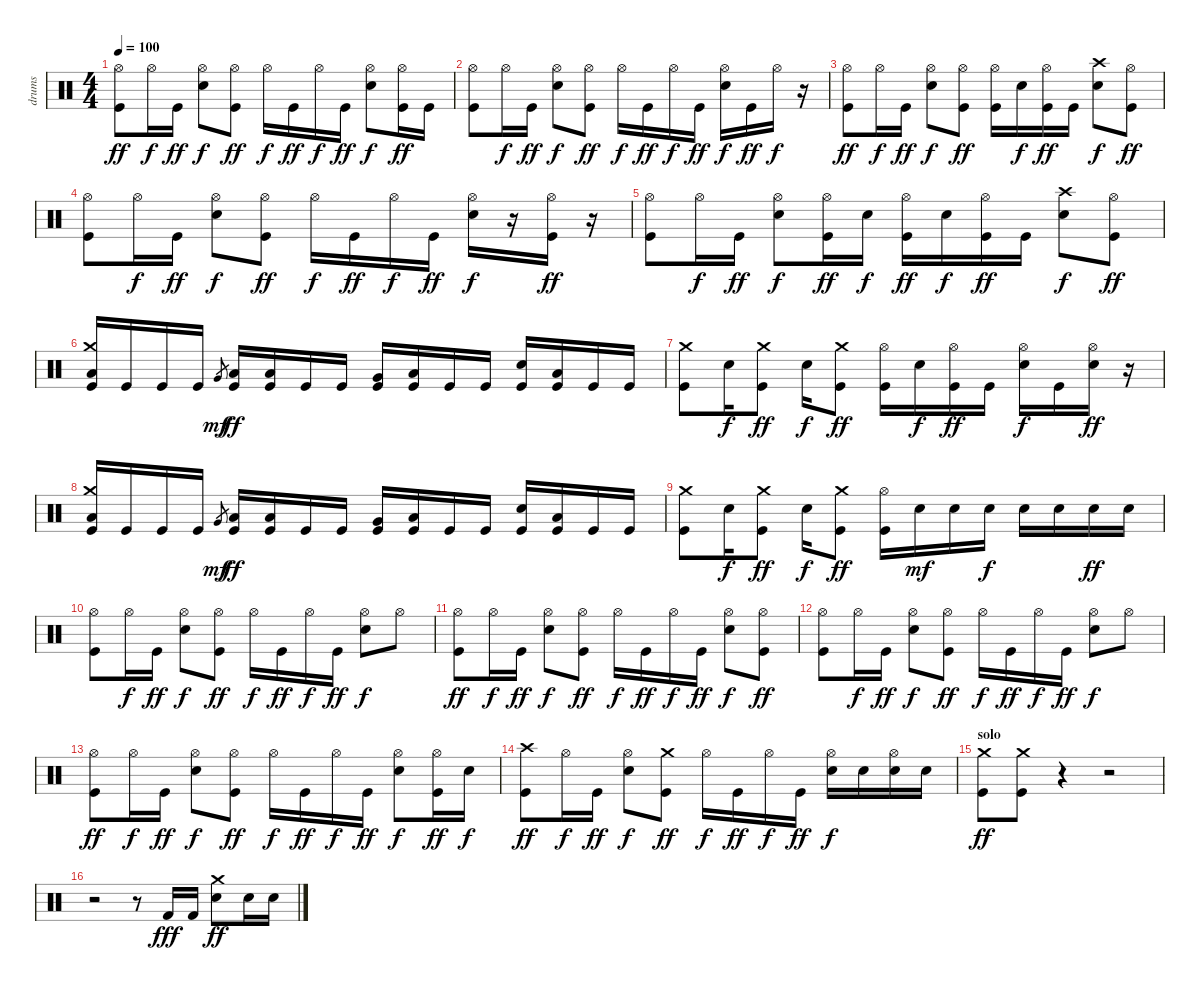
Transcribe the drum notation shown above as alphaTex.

\track ("drums" "drums") {instrument percussion}
\staff {score}
\articulation defaults
\ts (4 4)
\tempo 100
\clef neutral
\ks c
("Hi-Hat (open)" "Kick (hit)").8{dy ff} "Hi-Hat (open)".16{dy f} "Kick (hit)".16{dy ff} ("Hi-Hat (open)" "Snare (hit) 2").8{dy f} ("Hi-Hat (open)" "Kick (hit)").8{dy ff} "Hi-Hat (open)".16{dy f} "Kick (hit)".16{dy ff} "Hi-Hat (open)".16{dy f} "Kick (hit)".16{dy ff} ("Hi-Hat (open)" "Snare (hit) 2").8{dy f} ("Hi-Hat (open)" "Kick (hit)").16{dy ff} "Kick (hit)".16 |
("Hi-Hat (open)" "Kick (hit)").8 "Hi-Hat (open)".16{dy f} "Kick (hit)".16{dy ff} ("Hi-Hat (open)" "Snare (hit) 2").8{dy f} ("Hi-Hat (open)" "Kick (hit)").8{dy ff} "Hi-Hat (open)".16{dy f} "Kick (hit)".16{dy ff} "Hi-Hat (open)".16{dy f} "Kick (hit)".16{dy ff} ("Hi-Hat (open)" "Snare (hit) 2").16{dy f} "Kick (hit)".16{dy ff} "Hi-Hat (open)".16{dy f} r.16 |
("Hi-Hat (open)" "Kick (hit)").8{dy ff} "Hi-Hat (open)".16{dy f} "Kick (hit)".16{dy ff} ("Hi-Hat (open)" "Snare (hit) 2").8{dy f} ("Hi-Hat (open)" "Kick (hit)").8{dy ff} ("Hi-Hat (open)" "Kick (hit)").16 "Snare (hit) 2".16{dy f} ("Hi-Hat (open)" "Kick (hit)").16{dy ff} "Kick (hit)".16 ("Crash high (hit)" "Snare (hit) 2").8{dy f} ("Hi-Hat (open)" "Kick (hit)").8{dy ff} |
("Hi-Hat (open)" "Kick (hit)").8 "Hi-Hat (open)".16{dy f} "Kick (hit)".16{dy ff} ("Hi-Hat (open)" "Snare (hit) 2").8{dy f} ("Hi-Hat (open)" "Kick (hit)").8{dy ff} "Hi-Hat (open)".16{dy f} "Kick (hit)".16{dy ff} "Hi-Hat (open)".16{dy f} "Kick (hit)".16{dy ff} ("Hi-Hat (open)" "Snare (hit) 2").16{dy f} r.16 ("Hi-Hat (open)" "Kick (hit)").16{dy ff} r.16 |
("Hi-Hat (open)" "Kick (hit)").8 "Hi-Hat (open)".16{dy f} "Kick (hit)".16{dy ff} ("Hi-Hat (open)" "Snare (hit) 2").8{dy f} ("Hi-Hat (open)" "Kick (hit)").16{dy ff} "Snare (hit) 2".16{dy f} ("Hi-Hat (open)" "Kick (hit)").16{dy ff} "Snare (hit) 2".16{dy f} ("Hi-Hat (open)" "Kick (hit)").16{dy ff} "Kick (hit)".16 ("Crash high (hit)" "Snare (hit) 2").8{dy f} ("Hi-Hat (open)" "Kick (hit)").8{dy ff} |
("Crash medium (hit)" "Low Floor Tom (hit)" "Kick (hit)").16 "Kick (hit)".16 "Kick (hit)".16 "Kick (hit)".16 "Very Low Tom (hit)".8{gr dy mf} ("Low Floor Tom (hit)" "Kick (hit)").16{dy ff} ("Low Floor Tom (hit)" "Kick (hit)").16 "Kick (hit)".16 "Kick (hit)".16 ("Very Low Tom (hit)" "Kick (hit)").16 ("Low Floor Tom (hit)" "Kick (hit)").16 "Kick (hit)".16 "Kick (hit)".16 ("Snare (hit) 2" "Kick (hit)").16 ("Low Floor Tom (hit)" "Kick (hit)").16 "Kick (hit)".16 "Kick (hit)".16 |
("Crash medium (hit)" "Kick (hit)").8 "Snare (hit) 2".16{dy f} ("Crash medium (hit)" "Kick (hit)").8{dy ff} "Snare (hit) 2".16{dy f} ("Crash medium (hit)" "Kick (hit)").8{dy ff} ("Hi-Hat (open)" "Kick (hit)").16 "Snare (hit) 2".16{dy f} ("Hi-Hat (open)" "Kick (hit)").16{dy ff} "Kick (hit)".16 ("Hi-Hat (open)" "Snare (hit) 2").16{dy f} "Kick (hit)".16 ("Hi-Hat (open)" "Snare (hit) 2").16{dy ff} r.16 |
("Crash medium (hit)" "Low Floor Tom (hit)" "Kick (hit)").16 "Kick (hit)".16 "Kick (hit)".16 "Kick (hit)".16 "Very Low Tom (hit)".8{gr dy mf} ("Low Floor Tom (hit)" "Kick (hit)").16{dy ff} ("Low Floor Tom (hit)" "Kick (hit)").16 "Kick (hit)".16 "Kick (hit)".16 ("Very Low Tom (hit)" "Kick (hit)").16 ("Low Floor Tom (hit)" "Kick (hit)").16 "Kick (hit)".16 "Kick (hit)".16 ("Snare (hit) 2" "Kick (hit)").16 ("Low Floor Tom (hit)" "Kick (hit)").16 "Kick (hit)".16 "Kick (hit)".16 |
("Crash medium (hit)" "Kick (hit)").8 "Snare (hit) 2".16{dy f} ("Crash medium (hit)" "Kick (hit)").8{dy ff} "Snare (hit) 2".16{dy f} ("Crash medium (hit)" "Kick (hit)").8{dy ff} ("Hi-Hat (open)" "Kick (hit)").16 "Snare (hit) 2".16{dy mf} "Snare (hit) 2".16 "Snare (hit) 2".16{dy f} "Snare (hit) 2".16 "Snare (hit) 2".16 "Snare (hit) 2".16{dy ff} "Snare (hit) 2".16 |
("Hi-Hat (open)" "Kick (hit)").8 "Hi-Hat (open)".16{dy f} "Kick (hit)".16{dy ff} ("Hi-Hat (open)" "Snare (hit) 2").8{dy f} ("Hi-Hat (open)" "Kick (hit)").8{dy ff} "Hi-Hat (open)".16{dy f} "Kick (hit)".16{dy ff} "Hi-Hat (open)".16{dy f} "Kick (hit)".16{dy ff} ("Hi-Hat (open)" "Snare (hit) 2").8{dy f} "Hi-Hat (open)".8 |
("Hi-Hat (open)" "Kick (hit)").8{dy ff} "Hi-Hat (open)".16{dy f} "Kick (hit)".16{dy ff} ("Hi-Hat (open)" "Snare (hit) 2").8{dy f} ("Hi-Hat (open)" "Kick (hit)").8{dy ff} "Hi-Hat (open)".16{dy f} "Kick (hit)".16{dy ff} "Hi-Hat (open)".16{dy f} "Kick (hit)".16{dy ff} ("Hi-Hat (open)" "Snare (hit) 2").8{dy f} ("Hi-Hat (open)" "Kick (hit)").8{dy ff} |
("Hi-Hat (open)" "Kick (hit)").8 "Hi-Hat (open)".16{dy f} "Kick (hit)".16{dy ff} ("Hi-Hat (open)" "Snare (hit) 2").8{dy f} ("Hi-Hat (open)" "Kick (hit)").8{dy ff} "Hi-Hat (open)".16{dy f} "Kick (hit)".16{dy ff} "Hi-Hat (open)".16{dy f} "Kick (hit)".16{dy ff} ("Hi-Hat (open)" "Snare (hit) 2").8{dy f} "Hi-Hat (open)".8 |
("Hi-Hat (open)" "Kick (hit)").8{dy ff} "Hi-Hat (open)".16{dy f} "Kick (hit)".16{dy ff} ("Hi-Hat (open)" "Snare (hit) 2").8{dy f} ("Hi-Hat (open)" "Kick (hit)").8{dy ff} "Hi-Hat (open)".16{dy f} "Kick (hit)".16{dy ff} "Hi-Hat (open)".16{dy f} "Kick (hit)".16{dy ff} ("Hi-Hat (open)" "Snare (hit) 2").8{dy f} ("Hi-Hat (open)" "Kick (hit)").16{dy ff} "Snare (hit) 2".16{dy f} |
("Crash high (hit)" "Kick (hit)").8{dy ff} "Hi-Hat (open)".16{dy f} "Kick (hit)".16{dy ff} ("Hi-Hat (open)" "Snare (hit) 2").8{dy f} ("Crash medium (hit)" "Kick (hit)").8{dy ff} "Hi-Hat (open)".16{dy f} "Kick (hit)".16{dy ff} "Hi-Hat (open)".16{dy f} "Kick (hit)".16{dy ff} ("Hi-Hat (open)" "Snare (hit) 2").16{dy f} "Snare (hit) 2".16 ("Hi-Hat (open)" "Snare (hit) 2").16 "Snare (hit) 2".16 |
\section ("" "solo")
("Crash medium (hit)" "Kick (hit)").8{dy ff} ("Crash medium (hit)" "Kick (hit)").8 r.4 r.2 |
r.2 r.8 "Kick (hit) 2".16{dy fff} "Kick (hit) 2".16 ("Crash medium (hit)" "Snare (hit) 2").8{dy ff} "Snare (hit) 2".16 "Snare (hit) 2".16
